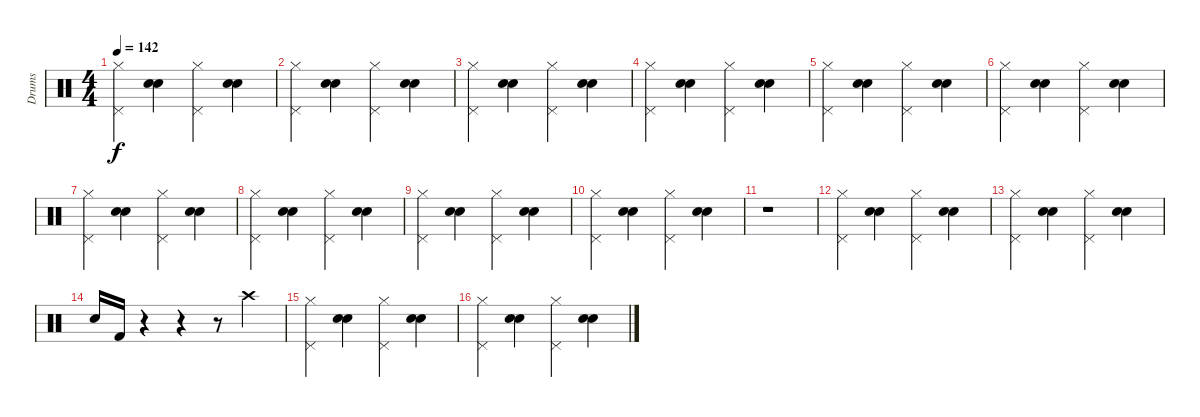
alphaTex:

\track ("Drums" "Drums") {instrument percussion}
\staff {score}
\articulation defaults
\ts (4 4)
\tempo 142
\clef neutral
\ks c
("Hi-Hat (closed)" "Pedal Hi-Hat (hit)").4{dy f} ("Snare (hit) 2" "Electric Snare (hit)").4 ("Hi-Hat (closed)" "Pedal Hi-Hat (hit)").4 ("Snare (hit) 2" "Electric Snare (hit)").4 |
("Hi-Hat (closed)" "Pedal Hi-Hat (hit)").4 ("Snare (hit) 2" "Electric Snare (hit)").4 ("Hi-Hat (closed)" "Pedal Hi-Hat (hit)").4 ("Snare (hit) 2" "Electric Snare (hit)").4 |
("Hi-Hat (closed)" "Pedal Hi-Hat (hit)").4 ("Snare (hit) 2" "Electric Snare (hit)").4 ("Hi-Hat (closed)" "Pedal Hi-Hat (hit)").4 ("Snare (hit) 2" "Electric Snare (hit)").4 |
("Hi-Hat (closed)" "Pedal Hi-Hat (hit)").4 ("Snare (hit) 2" "Electric Snare (hit)").4 ("Hi-Hat (closed)" "Pedal Hi-Hat (hit)").4 ("Snare (hit) 2" "Electric Snare (hit)").4 |
("Hi-Hat (closed)" "Pedal Hi-Hat (hit)").4 ("Snare (hit) 2" "Electric Snare (hit)").4 ("Hi-Hat (closed)" "Pedal Hi-Hat (hit)").4 ("Snare (hit) 2" "Electric Snare (hit)").4 |
("Hi-Hat (closed)" "Pedal Hi-Hat (hit)").4 ("Snare (hit) 2" "Electric Snare (hit)").4 ("Hi-Hat (closed)" "Pedal Hi-Hat (hit)").4 ("Snare (hit) 2" "Electric Snare (hit)").4 |
("Hi-Hat (closed)" "Pedal Hi-Hat (hit)").4 ("Snare (hit) 2" "Electric Snare (hit)").4 ("Hi-Hat (closed)" "Pedal Hi-Hat (hit)").4 ("Snare (hit) 2" "Electric Snare (hit)").4 |
("Hi-Hat (closed)" "Pedal Hi-Hat (hit)").4 ("Snare (hit) 2" "Electric Snare (hit)").4 ("Hi-Hat (closed)" "Pedal Hi-Hat (hit)").4 ("Snare (hit) 2" "Electric Snare (hit)").4 |
("Hi-Hat (closed)" "Pedal Hi-Hat (hit)").4 ("Snare (hit) 2" "Electric Snare (hit)").4 ("Hi-Hat (closed)" "Pedal Hi-Hat (hit)").4 ("Snare (hit) 2" "Electric Snare (hit)").4 |
("Hi-Hat (closed)" "Pedal Hi-Hat (hit)").4 ("Snare (hit) 2" "Electric Snare (hit)").4 ("Hi-Hat (closed)" "Pedal Hi-Hat (hit)").4 ("Snare (hit) 2" "Electric Snare (hit)").4 |
r.1 |
("Hi-Hat (closed)" "Pedal Hi-Hat (hit)").4 ("Snare (hit) 2" "Electric Snare (hit)").4 ("Hi-Hat (closed)" "Pedal Hi-Hat (hit)").4 ("Snare (hit) 2" "Electric Snare (hit)").4 |
("Hi-Hat (closed)" "Pedal Hi-Hat (hit)").4 ("Snare (hit) 2" "Electric Snare (hit)").4 ("Hi-Hat (closed)" "Pedal Hi-Hat (hit)").4 ("Snare (hit) 2" "Electric Snare (hit)").4 |
"Snare (hit) 2".16 "Kick (hit) 2".16 r.4 r.4 r.8 "Crash high (hit)".4 |
("Hi-Hat (closed)" "Pedal Hi-Hat (hit)").4 ("Snare (hit) 2" "Electric Snare (hit)").4 ("Hi-Hat (closed)" "Pedal Hi-Hat (hit)").4 ("Snare (hit) 2" "Electric Snare (hit)").4 |
("Hi-Hat (closed)" "Pedal Hi-Hat (hit)").4 ("Snare (hit) 2" "Electric Snare (hit)").4 ("Hi-Hat (closed)" "Pedal Hi-Hat (hit)").4 ("Snare (hit) 2" "Electric Snare (hit)").4
